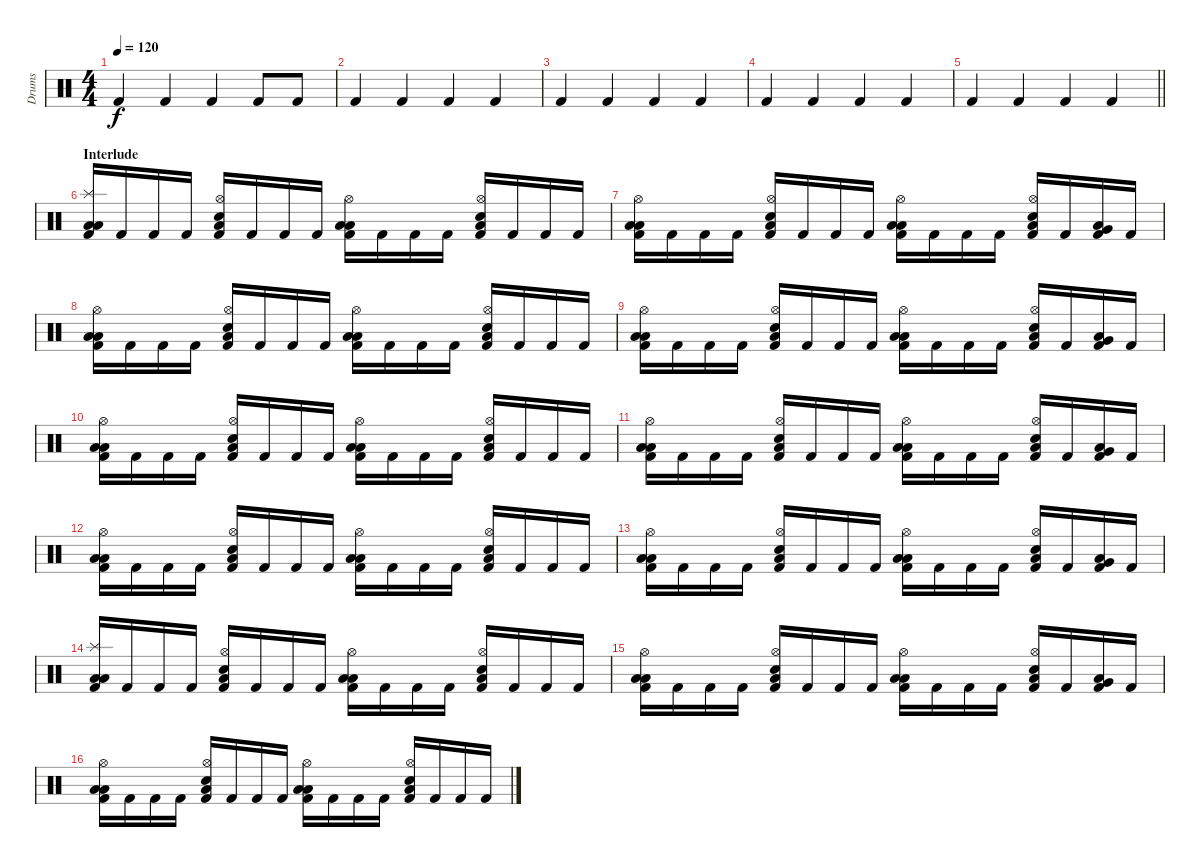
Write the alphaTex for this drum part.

\track ("Drums" "Drums") {instrument percussion}
\staff {score}
\articulation defaults
\ts (4 4)
\tempo 120
\clef neutral
\ks c "Kick (hit) 2".4{dy f} "Kick (hit) 2".4 "Kick (hit) 2".4 "Kick (hit) 2".8 "Kick (hit) 2".8
|
"Kick (hit) 2".4 "Kick (hit) 2".4 "Kick (hit) 2".4 "Kick (hit) 2".4 |
"Kick (hit) 2".4 "Kick (hit) 2".4 "Kick (hit) 2".4 "Kick (hit) 2".4 |
"Kick (hit) 2".4 "Kick (hit) 2".4 "Kick (hit) 2".4 "Kick (hit) 2".4 |
\barLineRight lightlight "Kick (hit) 2".4 "Kick (hit) 2".4 "Kick (hit) 2".4 "Kick (hit) 2".4
|
\section ("" "Interlude")
("Splash (hit)" "Low Floor Tom (hit)" "Low Tom (hit)" "Kick (hit) 2").16 "Kick (hit) 2".16 "Kick (hit) 2".16 "Kick (hit) 2".16 ("Hi-Hat (open)" "Snare (hit) 2" "Low Floor Tom (hit)" "Kick (hit) 2").16 "Kick (hit) 2".16 "Kick (hit) 2".16 "Kick (hit) 2".16 ("Hi-Hat (open)" "Low Floor Tom (hit)" "Low Tom (hit)" "Kick (hit) 2").16 "Kick (hit) 2".16 "Kick (hit) 2".16 "Kick (hit) 2".16 ("Hi-Hat (open)" "Snare (hit) 2" "Low Floor Tom (hit)" "Kick (hit) 2").16 "Kick (hit) 2".16 "Kick (hit) 2".16 "Kick (hit) 2".16 |
("Hi-Hat (open)" "Low Floor Tom (hit)" "Low Tom (hit)" "Kick (hit) 2").16 "Kick (hit) 2".16 "Kick (hit) 2".16 "Kick (hit) 2".16 ("Hi-Hat (open)" "Snare (hit) 2" "Low Floor Tom (hit)" "Kick (hit) 2").16 "Kick (hit) 2".16 "Kick (hit) 2".16 "Kick (hit) 2".16 ("Hi-Hat (open)" "Low Floor Tom (hit)" "Low Tom (hit)" "Kick (hit) 2").16 "Kick (hit) 2".16 "Kick (hit) 2".16 "Kick (hit) 2".16 ("Hi-Hat (open)" "Snare (hit) 2" "Low Floor Tom (hit)" "Kick (hit) 2").16 "Kick (hit) 2".16 ("Low Floor Tom (hit)" "Very Low Tom (hit)" "Kick (hit) 2").16 "Kick (hit) 2".16 |
("Hi-Hat (open)" "Low Floor Tom (hit)" "Low Tom (hit)" "Kick (hit) 2").16 "Kick (hit) 2".16 "Kick (hit) 2".16 "Kick (hit) 2".16 ("Hi-Hat (open)" "Snare (hit) 2" "Low Floor Tom (hit)" "Kick (hit) 2").16 "Kick (hit) 2".16 "Kick (hit) 2".16 "Kick (hit) 2".16 ("Hi-Hat (open)" "Low Floor Tom (hit)" "Low Tom (hit)" "Kick (hit) 2").16 "Kick (hit) 2".16 "Kick (hit) 2".16 "Kick (hit) 2".16 ("Hi-Hat (open)" "Snare (hit) 2" "Low Floor Tom (hit)" "Kick (hit) 2").16 "Kick (hit) 2".16 "Kick (hit) 2".16 "Kick (hit) 2".16 |
("Hi-Hat (open)" "Low Floor Tom (hit)" "Low Tom (hit)" "Kick (hit) 2").16 "Kick (hit) 2".16 "Kick (hit) 2".16 "Kick (hit) 2".16 ("Hi-Hat (open)" "Snare (hit) 2" "Low Floor Tom (hit)" "Kick (hit) 2").16 "Kick (hit) 2".16 "Kick (hit) 2".16 "Kick (hit) 2".16 ("Hi-Hat (open)" "Low Floor Tom (hit)" "Low Tom (hit)" "Kick (hit) 2").16 "Kick (hit) 2".16 "Kick (hit) 2".16 "Kick (hit) 2".16 ("Hi-Hat (open)" "Snare (hit) 2" "Low Floor Tom (hit)" "Kick (hit) 2").16 "Kick (hit) 2".16 ("Low Floor Tom (hit)" "Very Low Tom (hit)" "Kick (hit) 2").16 "Kick (hit) 2".16 |
("Hi-Hat (open)" "Low Floor Tom (hit)" "Low Tom (hit)" "Kick (hit) 2").16 "Kick (hit) 2".16 "Kick (hit) 2".16 "Kick (hit) 2".16 ("Hi-Hat (open)" "Snare (hit) 2" "Low Floor Tom (hit)" "Kick (hit) 2").16 "Kick (hit) 2".16 "Kick (hit) 2".16 "Kick (hit) 2".16 ("Hi-Hat (open)" "Low Floor Tom (hit)" "Low Tom (hit)" "Kick (hit) 2").16 "Kick (hit) 2".16 "Kick (hit) 2".16 "Kick (hit) 2".16 ("Hi-Hat (open)" "Snare (hit) 2" "Low Floor Tom (hit)" "Kick (hit) 2").16 "Kick (hit) 2".16 "Kick (hit) 2".16 "Kick (hit) 2".16 |
("Hi-Hat (open)" "Low Floor Tom (hit)" "Low Tom (hit)" "Kick (hit) 2").16 "Kick (hit) 2".16 "Kick (hit) 2".16 "Kick (hit) 2".16 ("Hi-Hat (open)" "Snare (hit) 2" "Low Floor Tom (hit)" "Kick (hit) 2").16 "Kick (hit) 2".16 "Kick (hit) 2".16 "Kick (hit) 2".16 ("Hi-Hat (open)" "Low Floor Tom (hit)" "Low Tom (hit)" "Kick (hit) 2").16 "Kick (hit) 2".16 "Kick (hit) 2".16 "Kick (hit) 2".16 ("Hi-Hat (open)" "Snare (hit) 2" "Low Floor Tom (hit)" "Kick (hit) 2").16 "Kick (hit) 2".16 ("Low Floor Tom (hit)" "Very Low Tom (hit)" "Kick (hit) 2").16 "Kick (hit) 2".16 |
("Hi-Hat (open)" "Low Floor Tom (hit)" "Low Tom (hit)" "Kick (hit) 2").16 "Kick (hit) 2".16 "Kick (hit) 2".16 "Kick (hit) 2".16 ("Hi-Hat (open)" "Snare (hit) 2" "Low Floor Tom (hit)" "Kick (hit) 2").16 "Kick (hit) 2".16 "Kick (hit) 2".16 "Kick (hit) 2".16 ("Hi-Hat (open)" "Low Floor Tom (hit)" "Low Tom (hit)" "Kick (hit) 2").16 "Kick (hit) 2".16 "Kick (hit) 2".16 "Kick (hit) 2".16 ("Hi-Hat (open)" "Snare (hit) 2" "Low Floor Tom (hit)" "Kick (hit) 2").16 "Kick (hit) 2".16 "Kick (hit) 2".16 "Kick (hit) 2".16 |
("Hi-Hat (open)" "Low Floor Tom (hit)" "Low Tom (hit)" "Kick (hit) 2").16 "Kick (hit) 2".16 "Kick (hit) 2".16 "Kick (hit) 2".16 ("Hi-Hat (open)" "Snare (hit) 2" "Low Floor Tom (hit)" "Kick (hit) 2").16 "Kick (hit) 2".16 "Kick (hit) 2".16 "Kick (hit) 2".16 ("Hi-Hat (open)" "Low Floor Tom (hit)" "Low Tom (hit)" "Kick (hit) 2").16 "Kick (hit) 2".16 "Kick (hit) 2".16 "Kick (hit) 2".16 ("Hi-Hat (open)" "Snare (hit) 2" "Low Floor Tom (hit)" "Kick (hit) 2").16 "Kick (hit) 2".16 ("Low Floor Tom (hit)" "Very Low Tom (hit)" "Kick (hit) 2").16 "Kick (hit) 2".16 |
("Splash (hit)" "Low Floor Tom (hit)" "Low Tom (hit)" "Kick (hit) 2").16 "Kick (hit) 2".16 "Kick (hit) 2".16 "Kick (hit) 2".16 ("Hi-Hat (open)" "Snare (hit) 2" "Low Floor Tom (hit)" "Kick (hit) 2").16 "Kick (hit) 2".16 "Kick (hit) 2".16 "Kick (hit) 2".16 ("Hi-Hat (open)" "Low Floor Tom (hit)" "Low Tom (hit)" "Kick (hit) 2").16 "Kick (hit) 2".16 "Kick (hit) 2".16 "Kick (hit) 2".16 ("Hi-Hat (open)" "Snare (hit) 2" "Low Floor Tom (hit)" "Kick (hit) 2").16 "Kick (hit) 2".16 "Kick (hit) 2".16 "Kick (hit) 2".16 |
("Hi-Hat (open)" "Low Floor Tom (hit)" "Low Tom (hit)" "Kick (hit) 2").16 "Kick (hit) 2".16 "Kick (hit) 2".16 "Kick (hit) 2".16 ("Hi-Hat (open)" "Snare (hit) 2" "Low Floor Tom (hit)" "Kick (hit) 2").16 "Kick (hit) 2".16 "Kick (hit) 2".16 "Kick (hit) 2".16 ("Hi-Hat (open)" "Low Floor Tom (hit)" "Low Tom (hit)" "Kick (hit) 2").16 "Kick (hit) 2".16 "Kick (hit) 2".16 "Kick (hit) 2".16 ("Hi-Hat (open)" "Snare (hit) 2" "Low Floor Tom (hit)" "Kick (hit) 2").16 "Kick (hit) 2".16 ("Low Floor Tom (hit)" "Very Low Tom (hit)" "Kick (hit) 2").16 "Kick (hit) 2".16 |
("Hi-Hat (open)" "Low Floor Tom (hit)" "Low Tom (hit)" "Kick (hit) 2").16 "Kick (hit) 2".16 "Kick (hit) 2".16 "Kick (hit) 2".16 ("Hi-Hat (open)" "Snare (hit) 2" "Low Floor Tom (hit)" "Kick (hit) 2").16 "Kick (hit) 2".16 "Kick (hit) 2".16 "Kick (hit) 2".16 ("Hi-Hat (open)" "Low Floor Tom (hit)" "Low Tom (hit)" "Kick (hit) 2").16 "Kick (hit) 2".16 "Kick (hit) 2".16 "Kick (hit) 2".16 ("Hi-Hat (open)" "Snare (hit) 2" "Low Floor Tom (hit)" "Kick (hit) 2").16 "Kick (hit) 2".16 "Kick (hit) 2".16 "Kick (hit) 2".16
